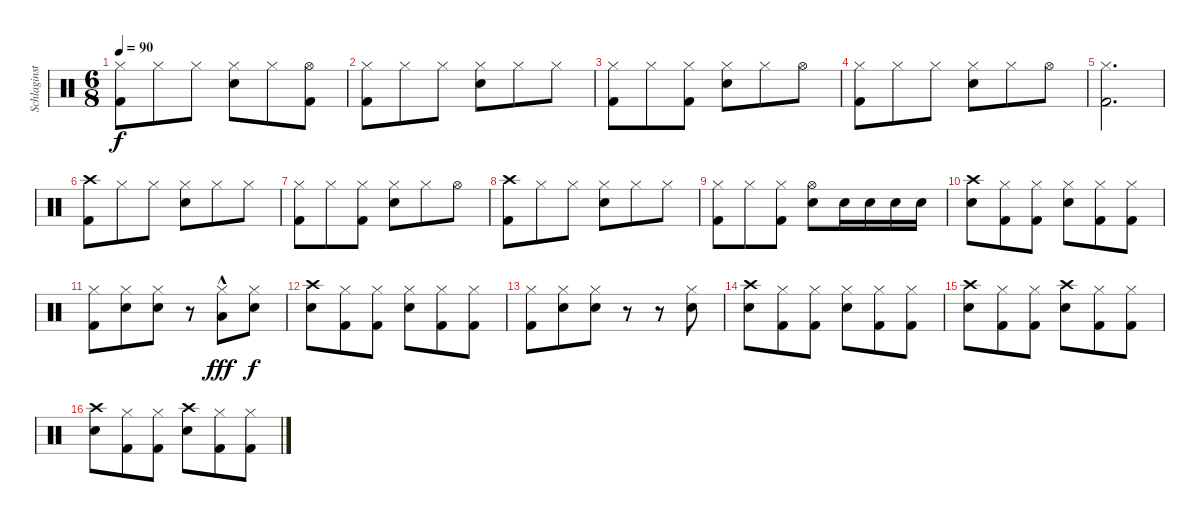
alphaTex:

\track ("Schlaginstrumente - Auswahl" "Schlaginst") {instrument percussion}
\staff {score}
\articulation defaults
\ts (6 8)
\tempo 90
\clef neutral
\ks c
("Hi-Hat (closed)" "Kick (hit) 2").8{dy f} "Hi-Hat (closed)".8 "Hi-Hat (closed)".8 ("Hi-Hat (closed)" "Snare (hit) 2").8 "Hi-Hat (closed)".8 ("Hi-Hat (open)" "Kick (hit) 2").8 |
("Hi-Hat (closed)" "Kick (hit) 2").8 "Hi-Hat (closed)".8 "Hi-Hat (closed)".8 ("Hi-Hat (closed)" "Snare (hit) 2").8 "Hi-Hat (closed)".8 "Hi-Hat (closed)".8 |
("Hi-Hat (closed)" "Kick (hit) 2").8 "Hi-Hat (closed)".8 ("Hi-Hat (closed)" "Kick (hit) 2").8 ("Hi-Hat (closed)" "Snare (hit) 2").8 "Hi-Hat (closed)".8 "Hi-Hat (open)".8 |
("Hi-Hat (closed)" "Kick (hit) 2").8 "Hi-Hat (closed)".8 "Hi-Hat (closed)".8 ("Hi-Hat (closed)" "Snare (hit) 2").8 "Hi-Hat (closed)".8 "Hi-Hat (open)".8 |
("Hi-Hat (closed)" "Kick (hit) 2").2{d} |
("Crash high (hit)" "Kick (hit) 2").8 "Hi-Hat (closed)".8 "Hi-Hat (closed)".8 ("Hi-Hat (closed)" "Snare (hit) 2").8 "Hi-Hat (closed)".8 "Hi-Hat (closed)".8 |
("Hi-Hat (closed)" "Kick (hit) 2").8 "Hi-Hat (closed)".8 ("Hi-Hat (closed)" "Kick (hit) 2").8 ("Hi-Hat (closed)" "Snare (hit) 2").8 "Hi-Hat (closed)".8 "Hi-Hat (open)".8 |
("Crash high (hit)" "Kick (hit) 2").8 "Hi-Hat (closed)".8 "Hi-Hat (closed)".8 ("Hi-Hat (closed)" "Snare (hit) 2").8 "Hi-Hat (closed)".8 "Hi-Hat (closed)".8 |
("Hi-Hat (closed)" "Kick (hit) 2").8 "Hi-Hat (closed)".8 ("Hi-Hat (closed)" "Kick (hit) 2").8 ("Hi-Hat (open)" "Snare (hit) 2").8 "Snare (hit) 2".16 "Snare (hit) 2".16 "Snare (hit) 2".16 "Snare (hit) 2".16 |
("Crash high (hit)" "Snare (hit) 2").8 ("Hi-Hat (closed)" "Kick (hit) 2").8 ("Hi-Hat (closed)" "Kick (hit) 2").8 ("Hi-Hat (closed)" "Snare (hit) 2").8 ("Hi-Hat (closed)" "Kick (hit) 2").8 ("Hi-Hat (closed)" "Kick (hit) 2").8 |
("Hi-Hat (closed)" "Kick (hit) 2").8 ("Hi-Hat (closed)" "Snare (hit) 2").8 ("Hi-Hat (closed)" "Snare (hit) 2").8 r.8 ("Hi-Hat (closed)" "Low Floor Tom (hit)"{hac}).8{dy fff} ("Hi-Hat (closed)" "Snare (hit) 2").8{dy f} |
("Crash high (hit)" "Snare (hit) 2").8 ("Hi-Hat (closed)" "Kick (hit) 2").8 ("Hi-Hat (closed)" "Kick (hit) 2").8 ("Hi-Hat (closed)" "Snare (hit) 2").8 ("Hi-Hat (closed)" "Kick (hit) 2").8 ("Hi-Hat (closed)" "Kick (hit) 2").8 |
("Hi-Hat (closed)" "Kick (hit) 2").8 ("Hi-Hat (closed)" "Snare (hit) 2").8 ("Hi-Hat (closed)" "Snare (hit) 2").8 r.8 r.8 ("Hi-Hat (closed)" "Snare (hit) 2").8 |
("Crash high (hit)" "Snare (hit) 2").8 ("Hi-Hat (closed)" "Kick (hit) 2").8 ("Hi-Hat (closed)" "Kick (hit) 2").8 ("Hi-Hat (closed)" "Snare (hit) 2").8 ("Hi-Hat (closed)" "Kick (hit) 2").8 ("Hi-Hat (closed)" "Kick (hit) 2").8 |
("Crash high (hit)" "Snare (hit) 2").8 ("Hi-Hat (closed)" "Kick (hit) 2").8 ("Hi-Hat (closed)" "Kick (hit) 2").8 ("Crash high (hit)" "Snare (hit) 2").8 ("Hi-Hat (closed)" "Kick (hit) 2").8 ("Hi-Hat (closed)" "Kick (hit) 2").8 |
("Crash high (hit)" "Snare (hit) 2").8 ("Hi-Hat (closed)" "Kick (hit) 2").8 ("Hi-Hat (closed)" "Kick (hit) 2").8 ("Crash high (hit)" "Snare (hit) 2").8 ("Hi-Hat (closed)" "Kick (hit) 2").8 ("Hi-Hat (closed)" "Kick (hit) 2").8
